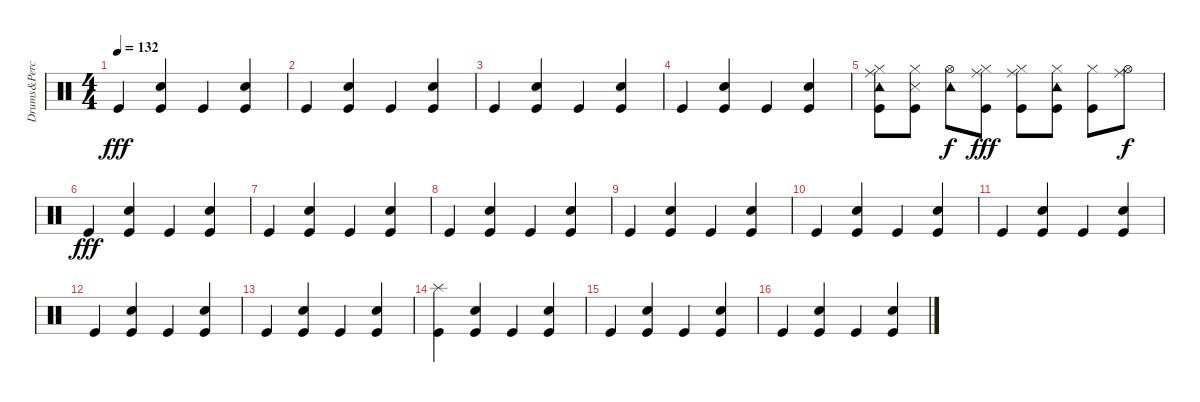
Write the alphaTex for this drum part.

\track ("Drums&Perc." "Drums&Perc") {instrument percussion}
\staff {score}
\articulation defaults
\ts (4 4)
\tempo 132
\clef neutral
\ks c "Kick (hit)".4{dy fff}
("Hand Clap (hit)" "Kick (hit)").4 "Kick (hit)".4 ("Hand Clap (hit)" "Kick (hit)").4 |
"Kick (hit)".4 ("Hand Clap (hit)" "Kick (hit)").4 "Kick (hit)".4 ("Kick (hit)" "Hand Clap (hit)").4 |
"Kick (hit)".4 ("Kick (hit)" "Hand Clap (hit)").4 "Kick (hit)".4 ("Kick (hit)" "Hand Clap (hit)").4 |
"Kick (hit)".4 ("Hand Clap (hit)" "Kick (hit)").4 "Kick (hit)".4 ("Hand Clap (hit)" "Kick (hit)").4 |
("Tambourine (hit)" "Kick (hit)" "Ride (middle)" "Hi-Hat (closed)").8 ("Snare (side stick) 3" "Hi-Hat (closed)" "Kick (hit)").8 ("Tambourine (hit)" "Hi-Hat (open)").8{dy f} ("Hi-Hat (closed)" "Ride (middle)" "Kick (hit)").8{dy fff} ("Hi-Hat (closed)" "Kick (hit)" "Ride (middle)").8 ("Tambourine (hit)" "Kick (hit)" "Hi-Hat (closed)").8 ("Kick (hit)" "Hi-Hat (closed)").8 ("Hi-Hat (open)" "Ride (middle)").8{dy f} |
"Kick (hit)".4{dy fff} ("Hand Clap (hit)" "Kick (hit)").4 "Kick (hit)".4 ("Hand Clap (hit)" "Kick (hit)").4 |
"Kick (hit)".4 ("Hand Clap (hit)" "Kick (hit)").4 "Kick (hit)".4 ("Hand Clap (hit)" "Kick (hit)").4 |
"Kick (hit)".4 ("Hand Clap (hit)" "Kick (hit)").4 "Kick (hit)".4 ("Hand Clap (hit)" "Kick (hit)").4 |
"Kick (hit)".4 ("Hand Clap (hit)" "Kick (hit)").4 "Kick (hit)".4 ("Hand Clap (hit)" "Kick (hit)").4 |
"Kick (hit)".4 ("Hand Clap (hit)" "Kick (hit)").4 "Kick (hit)".4 ("Hand Clap (hit)" "Kick (hit)").4 |
"Kick (hit)".4 ("Hand Clap (hit)" "Kick (hit)").4 "Kick (hit)".4 ("Hand Clap (hit)" "Kick (hit)").4 |
"Kick (hit)".4 ("Hand Clap (hit)" "Kick (hit)").4 "Kick (hit)".4 ("Hand Clap (hit)" "Kick (hit)").4 |
"Kick (hit)".4 ("Hand Clap (hit)" "Kick (hit)").4 "Kick (hit)".4 ("Hand Clap (hit)" "Kick (hit)").4 |
("Splash (hit)" "Kick (hit)").4 ("Hand Clap (hit)" "Kick (hit)").4 "Kick (hit)".4 ("Hand Clap (hit)" "Kick (hit)").4 |
"Kick (hit)".4 ("Hand Clap (hit)" "Kick (hit)").4 "Kick (hit)".4 ("Hand Clap (hit)" "Kick (hit)").4 |
"Kick (hit)".4 ("Hand Clap (hit)" "Kick (hit)").4 "Kick (hit)".4 ("Hand Clap (hit)" "Kick (hit)").4
